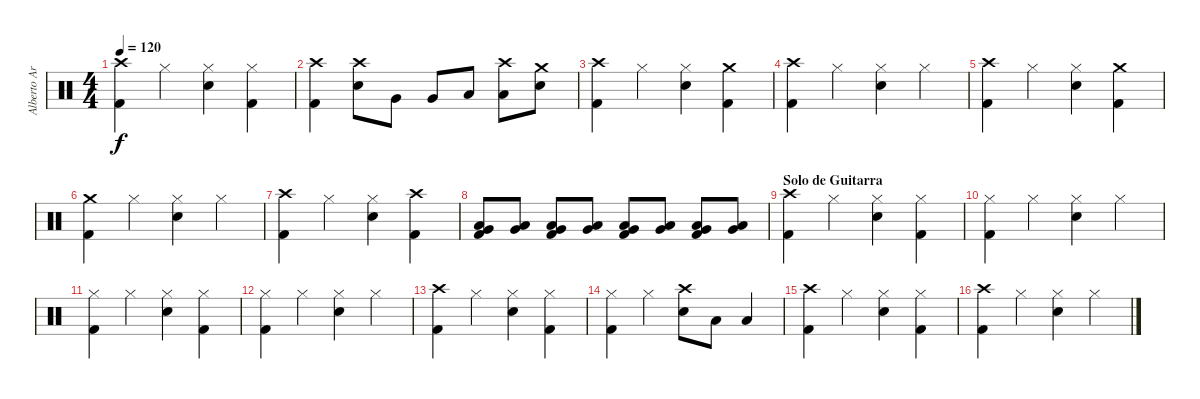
\track ("Alberto Ardines (Batería)" "Alberto Ar") {instrument percussion}
\staff {score}
\articulation defaults
\ts (4 4)
\tempo 120
\clef neutral
\ks c
("Crash high (hit)" "Kick (hit) 2").4{dy f} "Hi-Hat (closed)".4 ("Hi-Hat (closed)" "Electric Snare (hit)").4 ("Hi-Hat (closed)" "Kick (hit) 2").4 |
("Crash high (hit)" "Kick (hit) 2").4 ("Crash high (hit)" "Electric Snare (hit)").8 "Very Low Tom (hit)".8 "Very Low Tom (hit)".8 "Low Floor Tom (hit)".8 ("Low Floor Tom (hit)" "Crash high (hit)").8 ("Crash medium (hit)" "Electric Snare (hit)").8 |
("Crash high (hit)" "Kick (hit) 2").4 "Hi-Hat (closed)".4 ("Hi-Hat (closed)" "Electric Snare (hit)").4 ("Crash medium (hit)" "Kick (hit) 2").4 |
("Crash high (hit)" "Kick (hit) 2").4 "Hi-Hat (closed)".4 ("Hi-Hat (closed)" "Electric Snare (hit)").4 "Hi-Hat (closed)".4 |
("Crash high (hit)" "Kick (hit) 2").4 "Hi-Hat (closed)".4 ("Hi-Hat (closed)" "Electric Snare (hit)").4 ("Crash medium (hit)" "Kick (hit) 2").4 |
("Crash medium (hit)" "Kick (hit) 2").4 "Hi-Hat (closed)".4 ("Hi-Hat (closed)" "Electric Snare (hit)").4 "Hi-Hat (closed)".4 |
("Crash high (hit)" "Kick (hit) 2").4 "Hi-Hat (closed)".4 ("Hi-Hat (closed)" "Electric Snare (hit)").4 ("Crash high (hit)" "Kick (hit) 2").4 |
("Low Floor Tom (hit)" "Very Low Tom (hit)" "Kick (hit) 2").8 ("Low Floor Tom (hit)" "Very Low Tom (hit)").8 ("Low Floor Tom (hit)" "Very Low Tom (hit)" "Kick (hit) 2").8 ("Low Floor Tom (hit)" "Very Low Tom (hit)").8 ("Low Floor Tom (hit)" "Very Low Tom (hit)" "Kick (hit) 2").8 ("Low Floor Tom (hit)" "Very Low Tom (hit)").8 ("Low Floor Tom (hit)" "Very Low Tom (hit)" "Kick (hit) 2").8 ("Low Floor Tom (hit)" "Very Low Tom (hit)").8 |
\section ("" "Solo de Guitarra")
("Crash high (hit)" "Kick (hit) 2").4 "Hi-Hat (closed)".4 ("Hi-Hat (closed)" "Electric Snare (hit)").4 ("Hi-Hat (closed)" "Kick (hit) 2").4 |
("Hi-Hat (closed)" "Kick (hit) 2").4 "Hi-Hat (closed)".4 ("Hi-Hat (closed)" "Electric Snare (hit)").4 "Hi-Hat (closed)".4 |
("Hi-Hat (closed)" "Kick (hit) 2").4 "Hi-Hat (closed)".4 ("Hi-Hat (closed)" "Electric Snare (hit)").4 ("Hi-Hat (closed)" "Kick (hit) 2").4 |
("Hi-Hat (closed)" "Kick (hit) 2").4 "Hi-Hat (closed)".4 ("Hi-Hat (closed)" "Electric Snare (hit)").4 "Hi-Hat (closed)".4 |
("Crash high (hit)" "Kick (hit) 2").4 "Hi-Hat (closed)".4 ("Hi-Hat (closed)" "Electric Snare (hit)").4 ("Hi-Hat (closed)" "Kick (hit) 2").4 |
("Hi-Hat (closed)" "Kick (hit) 2").4 "Hi-Hat (closed)".4 ("Crash high (hit)" "Electric Snare (hit)").8 "Low Floor Tom (hit)".8 "Low Floor Tom (hit)".4 |
("Crash high (hit)" "Kick (hit) 2").4 "Hi-Hat (closed)".4 ("Hi-Hat (closed)" "Electric Snare (hit)").4 ("Hi-Hat (closed)" "Kick (hit) 2").4 |
("Crash high (hit)" "Kick (hit) 2").4 "Hi-Hat (closed)".4 ("Hi-Hat (closed)" "Electric Snare (hit)").4 "Hi-Hat (closed)".4
